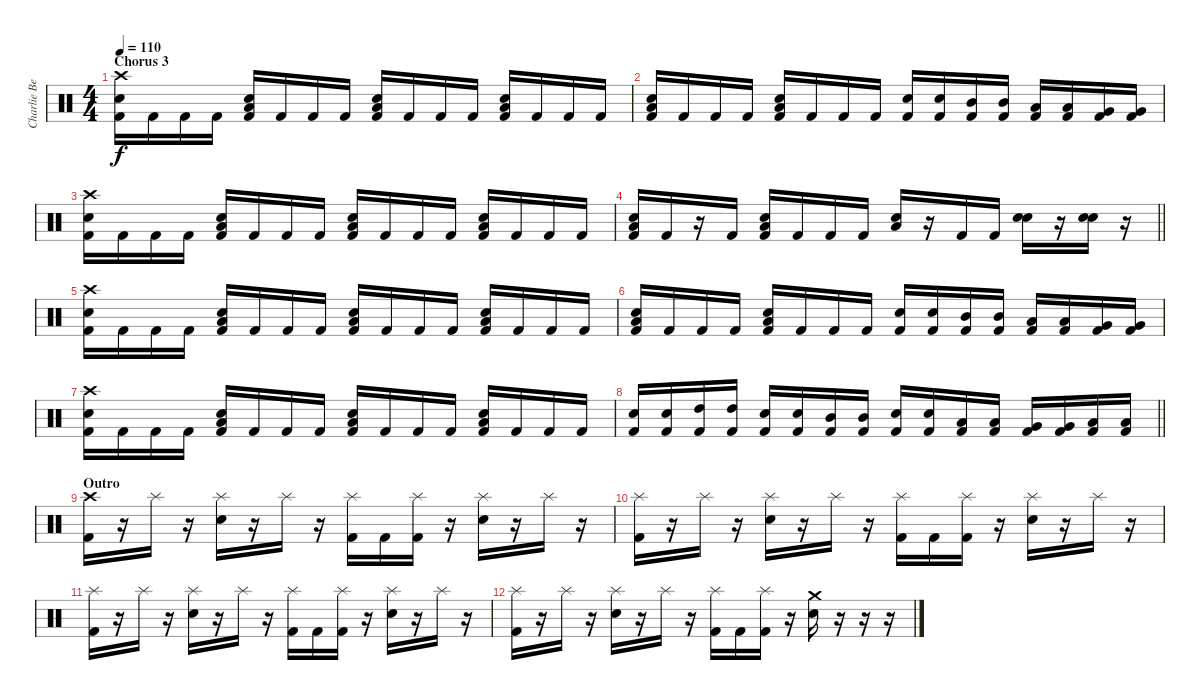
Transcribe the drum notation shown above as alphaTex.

\track ("Charlie Benante" "Charlie Be") {instrument percussion}
\staff {score}
\articulation defaults
\ts (4 4)
\section ("" "Chorus 3")
\tempo 110
\clef neutral
\ks c
("Crash high (hit)" "Electric Snare (hit)" "Kick (hit) 2").16{dy f} "Kick (hit) 2".16 "Kick (hit) 2".16 "Kick (hit) 2".16 ("Low Floor Tom (hit)" "Electric Snare (hit)" "Kick (hit) 2").16 "Kick (hit) 2".16 "Kick (hit) 2".16 "Kick (hit) 2".16 ("Low Floor Tom (hit)" "Electric Snare (hit)" "Kick (hit) 2").16 "Kick (hit) 2".16 "Kick (hit) 2".16 "Kick (hit) 2".16 ("Low Floor Tom (hit)" "Electric Snare (hit)" "Kick (hit) 2").16 "Kick (hit) 2".16 "Kick (hit) 2".16 "Kick (hit) 2".16 |
("Low Floor Tom (hit)" "Electric Snare (hit)" "Kick (hit) 2").16 "Kick (hit) 2".16 "Kick (hit) 2".16 "Kick (hit) 2".16 ("Low Floor Tom (hit)" "Electric Snare (hit)" "Kick (hit) 2").16 "Kick (hit) 2".16 "Kick (hit) 2".16 "Kick (hit) 2".16 ("Electric Snare (hit)" "Kick (hit) 2").16 ("Electric Snare (hit)" "Kick (hit) 2").16 ("Mid Tom (hit)" "Kick (hit) 2").16 ("Mid Tom (hit)" "Kick (hit) 2").16 ("Low Tom (hit)" "Kick (hit) 2").16 ("Low Tom (hit)" "Kick (hit) 2").16 ("Very Low Tom (hit)" "Kick (hit) 2").16 ("Very Low Tom (hit)" "Kick (hit) 2").16 |
("Crash high (hit)" "Electric Snare (hit)" "Kick (hit) 2").16 "Kick (hit) 2".16 "Kick (hit) 2".16 "Kick (hit) 2".16 ("Low Floor Tom (hit)" "Electric Snare (hit)" "Kick (hit) 2").16 "Kick (hit) 2".16 "Kick (hit) 2".16 "Kick (hit) 2".16 ("Low Floor Tom (hit)" "Electric Snare (hit)" "Kick (hit) 2").16 "Kick (hit) 2".16 "Kick (hit) 2".16 "Kick (hit) 2".16 ("Low Floor Tom (hit)" "Electric Snare (hit)" "Kick (hit) 2").16 "Kick (hit) 2".16 "Kick (hit) 2".16 "Kick (hit) 2".16 |
\barLineRight lightlight
("Low Floor Tom (hit)" "Electric Snare (hit)" "Kick (hit) 2").16 "Kick (hit) 2".16 r.16 "Kick (hit) 2".16 ("Low Floor Tom (hit)" "Electric Snare (hit)" "Kick (hit) 2").16 "Kick (hit) 2".16 "Kick (hit) 2".16 "Kick (hit) 2".16 ("Low Floor Tom (hit)" "Electric Snare (hit)").16 r.16 "Kick (hit) 2".16 "Kick (hit) 2".16 ("Snare (hit) 2" "Electric Snare (hit)").16 r.16 ("Snare (hit) 2" "Electric Snare (hit)").16 r.16 |
("Crash high (hit)" "Electric Snare (hit)" "Kick (hit) 2").16 "Kick (hit) 2".16 "Kick (hit) 2".16 "Kick (hit) 2".16 ("Low Floor Tom (hit)" "Electric Snare (hit)" "Kick (hit) 2").16 "Kick (hit) 2".16 "Kick (hit) 2".16 "Kick (hit) 2".16 ("Low Floor Tom (hit)" "Electric Snare (hit)" "Kick (hit) 2").16 "Kick (hit) 2".16 "Kick (hit) 2".16 "Kick (hit) 2".16 ("Low Floor Tom (hit)" "Electric Snare (hit)" "Kick (hit) 2").16 "Kick (hit) 2".16 "Kick (hit) 2".16 "Kick (hit) 2".16 |
("Low Floor Tom (hit)" "Electric Snare (hit)" "Kick (hit) 2").16 "Kick (hit) 2".16 "Kick (hit) 2".16 "Kick (hit) 2".16 ("Low Floor Tom (hit)" "Electric Snare (hit)" "Kick (hit) 2").16 "Kick (hit) 2".16 "Kick (hit) 2".16 "Kick (hit) 2".16 ("Electric Snare (hit)" "Kick (hit) 2").16 ("Electric Snare (hit)" "Kick (hit) 2").16 ("Mid Tom (hit)" "Kick (hit) 2").16 ("Mid Tom (hit)" "Kick (hit) 2").16 ("Low Tom (hit)" "Kick (hit) 2").16 ("Low Tom (hit)" "Kick (hit) 2").16 ("Very Low Tom (hit)" "Kick (hit) 2").16 ("Very Low Tom (hit)" "Kick (hit) 2").16 |
("Crash high (hit)" "Electric Snare (hit)" "Kick (hit) 2").16 "Kick (hit) 2".16 "Kick (hit) 2".16 "Kick (hit) 2".16 ("Low Floor Tom (hit)" "Electric Snare (hit)" "Kick (hit) 2").16 "Kick (hit) 2".16 "Kick (hit) 2".16 "Kick (hit) 2".16 ("Low Floor Tom (hit)" "Electric Snare (hit)" "Kick (hit) 2").16 "Kick (hit) 2".16 "Kick (hit) 2".16 "Kick (hit) 2".16 ("Low Floor Tom (hit)" "Electric Snare (hit)" "Kick (hit) 2").16 "Kick (hit) 2".16 "Kick (hit) 2".16 "Kick (hit) 2".16 |
\barLineRight lightlight
("Electric Snare (hit)" "Kick (hit) 2").16 ("Electric Snare (hit)" "Kick (hit) 2").16 ("High Tom (hit)" "Kick (hit) 2").16 ("High Tom (hit)" "Kick (hit) 2").16 ("Electric Snare (hit)" "Kick (hit) 2").16 ("Electric Snare (hit)" "Kick (hit) 2").16 ("Mid Tom (hit)" "Kick (hit) 2").16 ("Mid Tom (hit)" "Kick (hit) 2").16 ("Electric Snare (hit)" "Kick (hit) 2").16 ("Electric Snare (hit)" "Kick (hit) 2").16 ("Low Tom (hit)" "Kick (hit) 2").16 ("Low Tom (hit)" "Kick (hit) 2").16 ("Very Low Tom (hit)" "Kick (hit) 2").16 ("Very Low Tom (hit)" "Kick (hit) 2").16 ("Low Floor Tom (hit)" "Kick (hit) 2").16 ("Low Floor Tom (hit)" "Kick (hit) 2").16 |
\section ("" "Outro")
("Crash high (hit)" "Kick (hit) 2").16 r.16 "Splash (hit)".16 r.16 ("Splash (hit)" "Electric Snare (hit)").16 r.16 "Splash (hit)".16 r.16 ("Splash (hit)" "Kick (hit) 2").16 "Kick (hit) 2".16 ("Splash (hit)" "Kick (hit) 2").16 r.16 ("Splash (hit)" "Electric Snare (hit)").16 r.16 "Splash (hit)".16 r.16 |
("Splash (hit)" "Kick (hit) 2").16 r.16 "Splash (hit)".16 r.16 ("Splash (hit)" "Electric Snare (hit)").16 r.16 "Splash (hit)".16 r.16 ("Splash (hit)" "Kick (hit) 2").16 "Kick (hit) 2".16 ("Splash (hit)" "Kick (hit) 2").16 r.16 ("Splash (hit)" "Electric Snare (hit)").16 r.16 "Splash (hit)".16 r.16 |
("Splash (hit)" "Kick (hit) 2").16 r.16 "Splash (hit)".16 r.16 ("Splash (hit)" "Electric Snare (hit)").16 r.16 "Splash (hit)".16 r.16 ("Splash (hit)" "Kick (hit) 2").16 "Kick (hit) 2".16 ("Splash (hit)" "Kick (hit) 2").16 r.16 ("Splash (hit)" "Electric Snare (hit)").16 r.16 "Splash (hit)".16 r.16 |
("Splash (hit)" "Kick (hit) 2").16 r.16 "Splash (hit)".16 r.16 ("Splash (hit)" "Electric Snare (hit)").16 r.16 "Splash (hit)".16 r.16 ("Splash (hit)" "Kick (hit) 2").16 "Kick (hit) 2".16 ("Splash (hit)" "Kick (hit) 2").16 r.16 ("Crash medium (hit)" "Electric Snare (hit)").16 r.16 r.16 r.16
